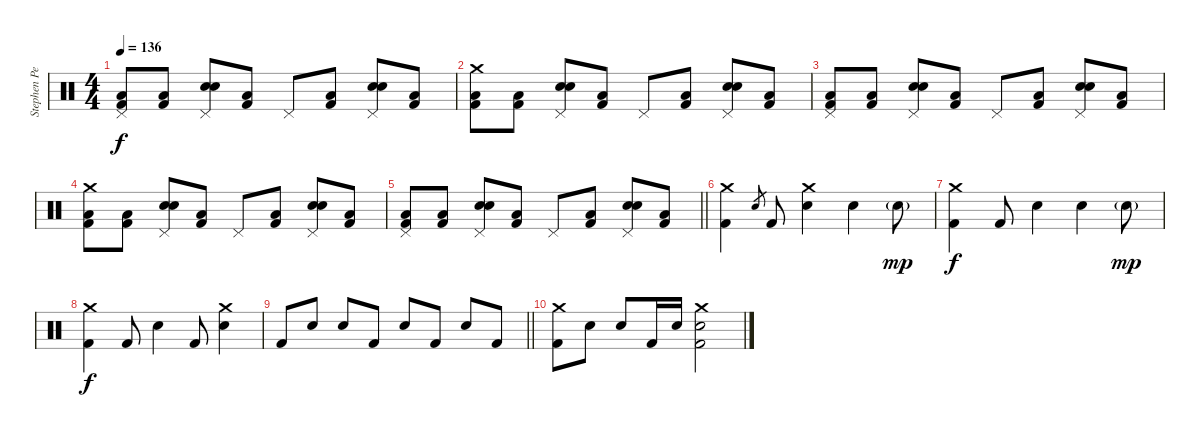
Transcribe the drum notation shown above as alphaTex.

\track ("Stephen Perkins (Drums)" "Stephen Pe") {instrument percussion}
\staff {score}
\articulation defaults
\ts (4 4)
\tempo 136
\clef neutral
\ks c
("Pedal Hi-Hat (hit)" "Low Floor Tom (hit)" "Kick (hit) 2").8{dy f} ("Low Floor Tom (hit)" "Kick (hit) 2").8 ("Pedal Hi-Hat (hit)" "Electric Snare (hit)" "Snare (hit) 2").8 ("Low Floor Tom (hit)" "Kick (hit) 2").8 "Pedal Hi-Hat (hit)".8 ("Low Floor Tom (hit)" "Kick (hit) 2").8 ("Pedal Hi-Hat (hit)" "Electric Snare (hit)" "Snare (hit) 2").8 ("Low Tom (hit)" "Kick (hit) 2").8 |
("Crash medium (hit)" "Low Floor Tom (hit)" "Kick (hit) 2").8 ("Low Floor Tom (hit)" "Kick (hit) 2").8 ("Pedal Hi-Hat (hit)" "Electric Snare (hit)" "Snare (hit) 2").8 ("Low Floor Tom (hit)" "Kick (hit) 2").8 "Pedal Hi-Hat (hit)".8 ("Low Floor Tom (hit)" "Kick (hit) 2").8 ("Pedal Hi-Hat (hit)" "Electric Snare (hit)" "Snare (hit) 2").8 ("Low Tom (hit)" "Kick (hit) 2").8 |
("Pedal Hi-Hat (hit)" "Low Floor Tom (hit)" "Kick (hit) 2").8 ("Low Floor Tom (hit)" "Kick (hit) 2").8 ("Pedal Hi-Hat (hit)" "Electric Snare (hit)" "Snare (hit) 2").8 ("Low Floor Tom (hit)" "Kick (hit) 2").8 "Pedal Hi-Hat (hit)".8 ("Low Floor Tom (hit)" "Kick (hit) 2").8 ("Pedal Hi-Hat (hit)" "Electric Snare (hit)" "Snare (hit) 2").8 ("Low Tom (hit)" "Kick (hit) 2").8 |
("Crash medium (hit)" "Low Floor Tom (hit)" "Kick (hit) 2").8 ("Low Floor Tom (hit)" "Kick (hit) 2").8 ("Pedal Hi-Hat (hit)" "Electric Snare (hit)" "Snare (hit) 2").8 ("Low Floor Tom (hit)" "Kick (hit) 2").8 "Pedal Hi-Hat (hit)".8 ("Low Floor Tom (hit)" "Kick (hit) 2").8 ("Pedal Hi-Hat (hit)" "Electric Snare (hit)" "Snare (hit) 2").8 ("Low Tom (hit)" "Kick (hit) 2").8 |
\barLineRight lightlight
("Pedal Hi-Hat (hit)" "Low Floor Tom (hit)" "Kick (hit) 2").8 ("Low Floor Tom (hit)" "Kick (hit) 2").8 ("Pedal Hi-Hat (hit)" "Electric Snare (hit)" "Snare (hit) 2").8 ("Low Floor Tom (hit)" "Kick (hit) 2").8 "Pedal Hi-Hat (hit)".8 ("Low Floor Tom (hit)" "Kick (hit) 2").8 ("Pedal Hi-Hat (hit)" "Electric Snare (hit)" "Snare (hit) 2").8 ("Low Tom (hit)" "Kick (hit) 2").8 |
("Crash medium (hit)" "Kick (hit) 2").4 "Electric Snare (hit)".8{gr} "Kick (hit) 2".8 ("Crash medium (hit)" "Electric Snare (hit)").4 "Electric Snare (hit)".4 "Electric Snare (hit)"{g}.8{dy mp} |
("Crash medium (hit)" "Kick (hit) 2").4{dy f} "Kick (hit) 2".8 "Electric Snare (hit)".4 "Electric Snare (hit)".4 "Electric Snare (hit)"{g}.8{dy mp} |
("Crash medium (hit)" "Kick (hit) 2").4{dy f} "Kick (hit) 2".8 "Electric Snare (hit)".4 "Kick (hit) 2".8 ("Crash medium (hit)" "Electric Snare (hit)").4 |
\barLineRight lightlight "Kick (hit) 2".8 "Electric Snare (hit)".8 "Electric Snare (hit)".8 "Kick (hit) 2".8 "Electric Snare (hit)".8 "Kick (hit) 2".8 "Electric Snare (hit)".8 "Kick (hit) 2".8
|
("Crash medium (hit)" "Kick (hit) 2").8 "Electric Snare (hit)".8 "Electric Snare (hit)".8 "Kick (hit) 2".16 "Electric Snare (hit)".16 ("Crash medium (hit)" "Electric Snare (hit)" "Kick (hit) 2").2
